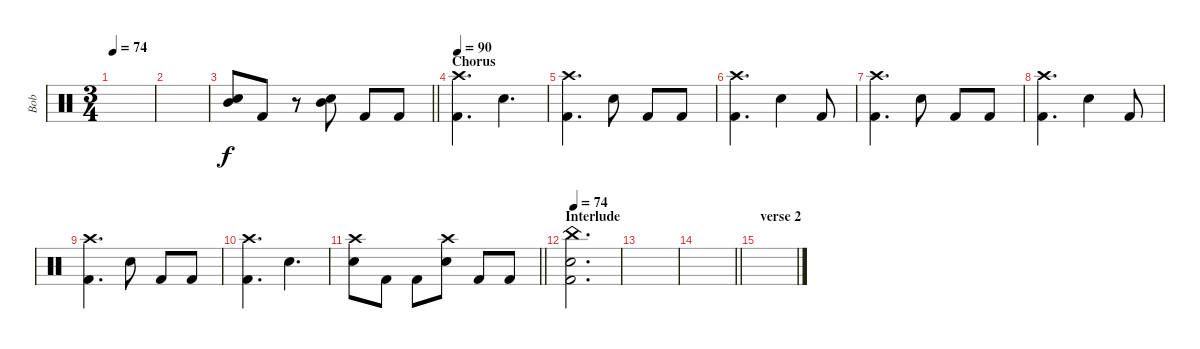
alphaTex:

\track ("Bob" "Bob") {instrument percussion}
\staff {score}
\articulation defaults
\ts (3 4)
\tempo 74
\clef neutral
\ks c
|
|
\barLineRight lightlight
("Electric Snare (hit)" "Mid Tom (hit)").8 "Kick (hit) 2".8 r.8 ("Electric Snare (hit)" "Mid Tom (hit)").8 "Kick (hit) 2".8 "Kick (hit) 2".8 |
\section ("" "Chorus")
\tempo 90
("Crash high (hit)" "Kick (hit) 2").4{d} "Electric Snare (hit)".4{d} |
("Crash high (hit)" "Kick (hit) 2").4{d} "Electric Snare (hit)".8 "Kick (hit) 2".8 "Kick (hit) 2".8 |
("Crash high (hit)" "Kick (hit) 2").4{d} "Electric Snare (hit)".4 "Kick (hit) 2".8 |
("Crash high (hit)" "Kick (hit) 2").4{d} "Electric Snare (hit)".8 "Kick (hit) 2".8 "Kick (hit) 2".8 |
("Crash high (hit)" "Kick (hit) 2").4{d} "Electric Snare (hit)".4 "Kick (hit) 2".8 |
("Crash high (hit)" "Kick (hit) 2").4{d} "Electric Snare (hit)".8 "Kick (hit) 2".8 "Kick (hit) 2".8 |
("Crash high (hit)" "Kick (hit) 2").4{d} "Electric Snare (hit)".4{d} |
\barLineRight lightlight
("Crash high (hit)" "Electric Snare (hit)").8 "Kick (hit) 2".8 "Kick (hit) 2".8 ("Crash high (hit)" "Electric Snare (hit)").8 "Kick (hit) 2".8 "Kick (hit) 2".8 |
\section ("" "Interlude")
\tempo 74
("China (hit)" "Electric Snare (hit)" "Kick (hit) 2").2{d} |
|
\barLineRight lightlight
|
\section ("" "verse 2")
